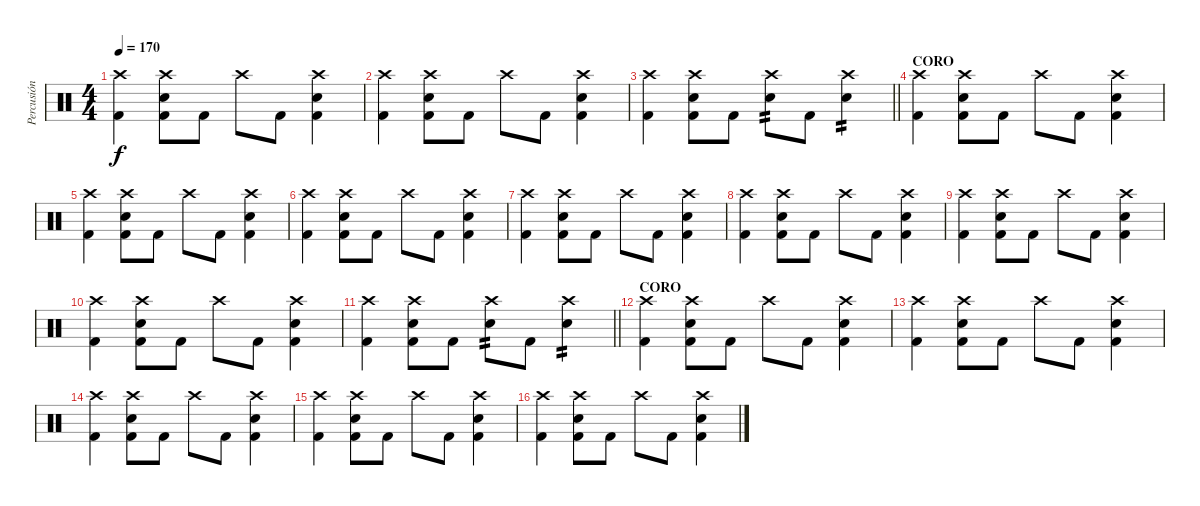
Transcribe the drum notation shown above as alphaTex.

\track ("Percusión" "Percusión") {instrument percussion}
\staff {score}
\articulation defaults
\ts (4 4)
\tempo 170
\clef neutral
\ks c
("Crash high (hit)" "Kick (hit) 2").4{dy f} ("Crash high (hit)" "Electric Snare (hit)" "Kick (hit) 2").8 "Kick (hit) 2".8 "Crash high (hit)".8 "Kick (hit) 2".8 ("Crash high (hit)" "Electric Snare (hit)" "Kick (hit) 2").4 |
("Crash high (hit)" "Kick (hit) 2").4 ("Crash high (hit)" "Electric Snare (hit)" "Kick (hit) 2").8 "Kick (hit) 2".8 "Crash high (hit)".8 "Kick (hit) 2".8 ("Crash high (hit)" "Electric Snare (hit)" "Kick (hit) 2").4 |
\barLineRight lightlight
("Crash high (hit)" "Kick (hit) 2").4 ("Crash high (hit)" "Electric Snare (hit)" "Kick (hit) 2").8 "Kick (hit) 2".8 ("Crash high (hit)" "Electric Snare (hit)").8{tp 2} "Kick (hit) 2".8 ("Crash high (hit)" "Electric Snare (hit)").4{tp 2} |
\section ("" "CORO")
("Crash high (hit)" "Kick (hit) 2").4 ("Crash high (hit)" "Electric Snare (hit)" "Kick (hit) 2").8 "Kick (hit) 2".8 "Crash high (hit)".8 "Kick (hit) 2".8 ("Crash high (hit)" "Electric Snare (hit)" "Kick (hit) 2").4 |
("Crash high (hit)" "Kick (hit) 2").4 ("Crash high (hit)" "Electric Snare (hit)" "Kick (hit) 2").8 "Kick (hit) 2".8 "Crash high (hit)".8 "Kick (hit) 2".8 ("Crash high (hit)" "Electric Snare (hit)" "Kick (hit) 2").4 |
("Crash high (hit)" "Kick (hit) 2").4 ("Crash high (hit)" "Electric Snare (hit)" "Kick (hit) 2").8 "Kick (hit) 2".8 "Crash high (hit)".8 "Kick (hit) 2".8 ("Crash high (hit)" "Electric Snare (hit)" "Kick (hit) 2").4 |
("Crash high (hit)" "Kick (hit) 2").4 ("Crash high (hit)" "Electric Snare (hit)" "Kick (hit) 2").8 "Kick (hit) 2".8 "Crash high (hit)".8 "Kick (hit) 2".8 ("Crash high (hit)" "Electric Snare (hit)" "Kick (hit) 2").4 |
("Crash high (hit)" "Kick (hit) 2").4 ("Crash high (hit)" "Electric Snare (hit)" "Kick (hit) 2").8 "Kick (hit) 2".8 "Crash high (hit)".8 "Kick (hit) 2".8 ("Crash high (hit)" "Electric Snare (hit)" "Kick (hit) 2").4 |
("Crash high (hit)" "Kick (hit) 2").4 ("Crash high (hit)" "Electric Snare (hit)" "Kick (hit) 2").8 "Kick (hit) 2".8 "Crash high (hit)".8 "Kick (hit) 2".8 ("Crash high (hit)" "Electric Snare (hit)" "Kick (hit) 2").4 |
("Crash high (hit)" "Kick (hit) 2").4 ("Crash high (hit)" "Electric Snare (hit)" "Kick (hit) 2").8 "Kick (hit) 2".8 "Crash high (hit)".8 "Kick (hit) 2".8 ("Crash high (hit)" "Electric Snare (hit)" "Kick (hit) 2").4 |
\barLineRight lightlight
("Crash high (hit)" "Kick (hit) 2").4 ("Crash high (hit)" "Electric Snare (hit)" "Kick (hit) 2").8 "Kick (hit) 2".8 ("Crash high (hit)" "Electric Snare (hit)").8{tp 2} "Kick (hit) 2".8 ("Crash high (hit)" "Electric Snare (hit)").4{tp 2} |
\section ("" "CORO")
("Crash high (hit)" "Kick (hit) 2").4 ("Crash high (hit)" "Electric Snare (hit)" "Kick (hit) 2").8 "Kick (hit) 2".8 "Crash high (hit)".8 "Kick (hit) 2".8 ("Crash high (hit)" "Electric Snare (hit)" "Kick (hit) 2").4 |
("Crash high (hit)" "Kick (hit) 2").4 ("Crash high (hit)" "Electric Snare (hit)" "Kick (hit) 2").8 "Kick (hit) 2".8 "Crash high (hit)".8 "Kick (hit) 2".8 ("Crash high (hit)" "Electric Snare (hit)" "Kick (hit) 2").4 |
("Crash high (hit)" "Kick (hit) 2").4 ("Crash high (hit)" "Electric Snare (hit)" "Kick (hit) 2").8 "Kick (hit) 2".8 "Crash high (hit)".8 "Kick (hit) 2".8 ("Crash high (hit)" "Electric Snare (hit)" "Kick (hit) 2").4 |
("Crash high (hit)" "Kick (hit) 2").4 ("Crash high (hit)" "Electric Snare (hit)" "Kick (hit) 2").8 "Kick (hit) 2".8 "Crash high (hit)".8 "Kick (hit) 2".8 ("Crash high (hit)" "Electric Snare (hit)" "Kick (hit) 2").4 |
("Crash high (hit)" "Kick (hit) 2").4 ("Crash high (hit)" "Electric Snare (hit)" "Kick (hit) 2").8 "Kick (hit) 2".8 "Crash high (hit)".8 "Kick (hit) 2".8 ("Crash high (hit)" "Electric Snare (hit)" "Kick (hit) 2").4
